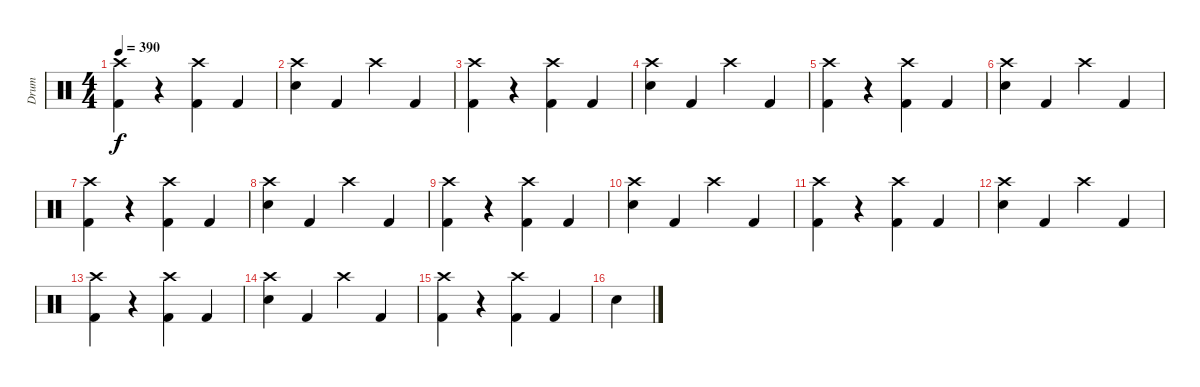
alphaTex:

\track ("Drum" "Drum") {instrument percussion}
\staff {score}
\articulation defaults
\ts (4 4)
\tempo 390
\clef neutral
\ks c
("Crash high (hit)" "Kick (hit) 2").4{dy f} r.4 ("Crash high (hit)" "Kick (hit) 2").4 "Kick (hit) 2".4 |
("Crash high (hit)" "Electric Snare (hit)").4 "Kick (hit) 2".4 "Crash high (hit)".4 "Kick (hit) 2".4 |
("Crash high (hit)" "Kick (hit) 2").4 r.4 ("Crash high (hit)" "Kick (hit) 2").4 "Kick (hit) 2".4 |
("Crash high (hit)" "Electric Snare (hit)").4 "Kick (hit) 2".4 "Crash high (hit)".4 "Kick (hit) 2".4 |
("Crash high (hit)" "Kick (hit) 2").4 r.4 ("Crash high (hit)" "Kick (hit) 2").4 "Kick (hit) 2".4 |
("Crash high (hit)" "Electric Snare (hit)").4 "Kick (hit) 2".4 "Crash high (hit)".4 "Kick (hit) 2".4 |
("Crash high (hit)" "Kick (hit) 2").4 r.4 ("Crash high (hit)" "Kick (hit) 2").4 "Kick (hit) 2".4 |
("Crash high (hit)" "Electric Snare (hit)").4 "Kick (hit) 2".4 "Crash high (hit)".4 "Kick (hit) 2".4 |
("Crash high (hit)" "Kick (hit) 2").4 r.4 ("Crash high (hit)" "Kick (hit) 2").4 "Kick (hit) 2".4 |
("Crash high (hit)" "Electric Snare (hit)").4 "Kick (hit) 2".4 "Crash high (hit)".4 "Kick (hit) 2".4 |
("Crash high (hit)" "Kick (hit) 2").4 r.4 ("Crash high (hit)" "Kick (hit) 2").4 "Kick (hit) 2".4 |
("Crash high (hit)" "Electric Snare (hit)").4 "Kick (hit) 2".4 "Crash high (hit)".4 "Kick (hit) 2".4 |
("Crash high (hit)" "Kick (hit) 2").4 r.4 ("Crash high (hit)" "Kick (hit) 2").4 "Kick (hit) 2".4 |
("Crash high (hit)" "Electric Snare (hit)").4 "Kick (hit) 2".4 "Crash high (hit)".4 "Kick (hit) 2".4 |
("Crash high (hit)" "Kick (hit) 2").4 r.4 ("Crash high (hit)" "Kick (hit) 2").4 "Kick (hit) 2".4 |
"Electric Snare (hit)".4
